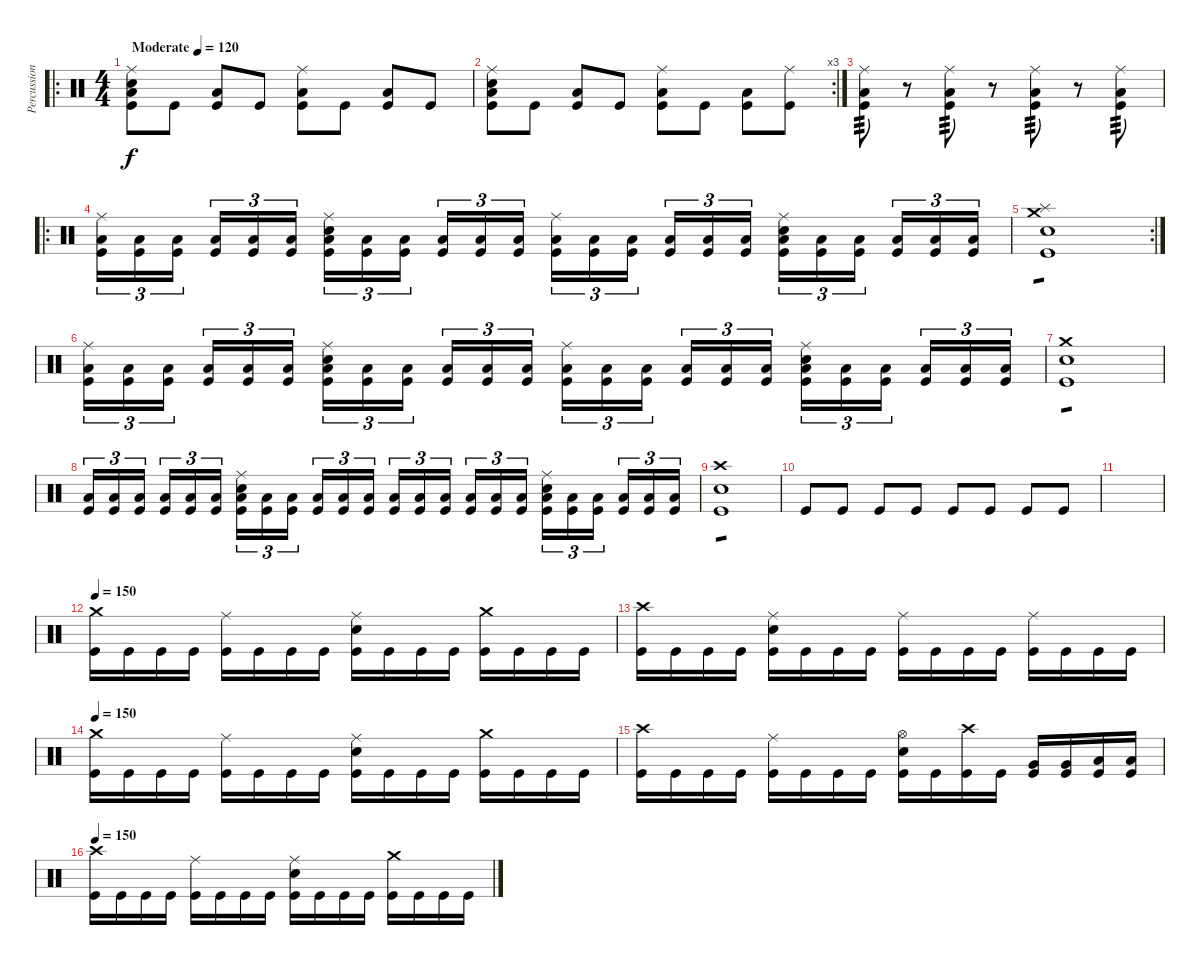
\track ("Percussion" "Percussion") {instrument percussion}
\staff {score}
\articulation defaults
\ro
\ts (4 4)
\tempo (120 "Moderate")
\clef neutral
\ks c
("Ride (middle)" "Electric Snare (hit)" "Low Floor Tom (hit)" "Kick (hit)").8{dy f} "Kick (hit)".8 ("Low Floor Tom (hit)" "Kick (hit)").8 "Kick (hit)".8 ("Ride (middle)" "Low Floor Tom (hit)" "Kick (hit)").8 "Kick (hit)".8 ("Low Floor Tom (hit)" "Kick (hit)").8 "Kick (hit)".8 |
\rc 3
("Ride (middle)" "Electric Snare (hit)" "Low Floor Tom (hit)" "Kick (hit)").8 "Kick (hit)".8 ("Low Floor Tom (hit)" "Kick (hit)").8 "Kick (hit)".8 ("Ride (middle)" "Low Floor Tom (hit)" "Kick (hit)").8 "Kick (hit)".8 ("Low Floor Tom (hit)" "Kick (hit)").8 ("Ride (middle)" "Kick (hit)").8 |
("Ride (middle)" "Low Floor Tom (hit)" "Kick (hit)").8{tp 3} r.8 ("Ride (middle)" "Low Floor Tom (hit)" "Kick (hit)").8{tp 3} r.8 ("Ride (middle)" "Low Floor Tom (hit)" "Kick (hit)").8{tp 3} r.8 ("Ride (middle)" "Low Floor Tom (hit)" "Kick (hit)").8{tp 3} |
\ro
("Ride (middle)" "Low Floor Tom (hit)" "Kick (hit)").16{tu (3 2)} ("Low Floor Tom (hit)" "Kick (hit)").16{tu (3 2)} ("Low Floor Tom (hit)" "Kick (hit)").16{tu (3 2) beam splitsecondary} ("Low Floor Tom (hit)" "Kick (hit)").16{tu (3 2)} ("Low Floor Tom (hit)" "Kick (hit)").16{tu (3 2)} ("Low Floor Tom (hit)" "Kick (hit)").16{tu (3 2)} ("Ride (middle)" "Electric Snare (hit)" "Low Floor Tom (hit)" "Kick (hit)").16{tu (3 2)} ("Low Floor Tom (hit)" "Kick (hit)").16{tu (3 2)} ("Low Floor Tom (hit)" "Kick (hit)").16{tu (3 2) beam splitsecondary} ("Low Floor Tom (hit)" "Kick (hit)").16{tu (3 2)} ("Low Floor Tom (hit)" "Kick (hit)").16{tu (3 2)} ("Low Floor Tom (hit)" "Kick (hit)").16{tu (3 2)} ("Ride (middle)" "Low Floor Tom (hit)" "Kick (hit)").16{tu (3 2)} ("Low Floor Tom (hit)" "Kick (hit)").16{tu (3 2)} ("Low Floor Tom (hit)" "Kick (hit)").16{tu (3 2) beam splitsecondary} ("Low Floor Tom (hit)" "Kick (hit)").16{tu (3 2)} ("Low Floor Tom (hit)" "Kick (hit)").16{tu (3 2)} ("Low Floor Tom (hit)" "Kick (hit)").16{tu (3 2)} ("Ride (middle)" "Electric Snare (hit)" "Low Floor Tom (hit)" "Kick (hit)").16{tu (3 2)} ("Low Floor Tom (hit)" "Kick (hit)").16{tu (3 2)} ("Low Floor Tom (hit)" "Kick (hit)").16{tu (3 2) beam splitsecondary} ("Low Floor Tom (hit)" "Kick (hit)").16{tu (3 2)} ("Low Floor Tom (hit)" "Kick (hit)").16{tu (3 2)} ("Low Floor Tom (hit)" "Kick (hit)").16{tu (3 2)} |
\rc 2
("Crash medium (hit)" "Splash (hit)" "Electric Snare (hit)" "Kick (hit)").1{tp 1} |
("Ride (middle)" "Low Floor Tom (hit)" "Kick (hit)").16{tu (3 2)} ("Low Floor Tom (hit)" "Kick (hit)").16{tu (3 2)} ("Low Floor Tom (hit)" "Kick (hit)").16{tu (3 2) beam splitsecondary} ("Low Floor Tom (hit)" "Kick (hit)").16{tu (3 2)} ("Low Floor Tom (hit)" "Kick (hit)").16{tu (3 2)} ("Low Floor Tom (hit)" "Kick (hit)").16{tu (3 2)} ("Ride (middle)" "Electric Snare (hit)" "Low Floor Tom (hit)" "Kick (hit)").16{tu (3 2)} ("Low Floor Tom (hit)" "Kick (hit)").16{tu (3 2)} ("Low Floor Tom (hit)" "Kick (hit)").16{tu (3 2) beam splitsecondary} ("Low Floor Tom (hit)" "Kick (hit)").16{tu (3 2)} ("Low Floor Tom (hit)" "Kick (hit)").16{tu (3 2)} ("Low Floor Tom (hit)" "Kick (hit)").16{tu (3 2)} ("Ride (middle)" "Low Floor Tom (hit)" "Kick (hit)").16{tu (3 2)} ("Low Floor Tom (hit)" "Kick (hit)").16{tu (3 2)} ("Low Floor Tom (hit)" "Kick (hit)").16{tu (3 2) beam splitsecondary} ("Low Floor Tom (hit)" "Kick (hit)").16{tu (3 2)} ("Low Floor Tom (hit)" "Kick (hit)").16{tu (3 2)} ("Low Floor Tom (hit)" "Kick (hit)").16{tu (3 2)} ("Ride (middle)" "Electric Snare (hit)" "Low Floor Tom (hit)" "Kick (hit)").16{tu (3 2)} ("Low Floor Tom (hit)" "Kick (hit)").16{tu (3 2)} ("Low Floor Tom (hit)" "Kick (hit)").16{tu (3 2) beam splitsecondary} ("Low Floor Tom (hit)" "Kick (hit)").16{tu (3 2)} ("Low Floor Tom (hit)" "Kick (hit)").16{tu (3 2)} ("Low Floor Tom (hit)" "Kick (hit)").16{tu (3 2)} |
("Crash medium (hit)" "Electric Snare (hit)" "Kick (hit)").1{tp 1} |
("Low Floor Tom (hit)" "Kick (hit)").16{tu (3 2)} ("Low Floor Tom (hit)" "Kick (hit)").16{tu (3 2)} ("Low Floor Tom (hit)" "Kick (hit)").16{tu (3 2) beam splitsecondary} ("Low Floor Tom (hit)" "Kick (hit)").16{tu (3 2)} ("Low Floor Tom (hit)" "Kick (hit)").16{tu (3 2)} ("Low Floor Tom (hit)" "Kick (hit)").16{tu (3 2)} ("Ride (middle)" "Electric Snare (hit)" "Low Floor Tom (hit)" "Kick (hit)").16{tu (3 2)} ("Low Floor Tom (hit)" "Kick (hit)").16{tu (3 2)} ("Low Floor Tom (hit)" "Kick (hit)").16{tu (3 2) beam splitsecondary} ("Low Floor Tom (hit)" "Kick (hit)").16{tu (3 2)} ("Low Floor Tom (hit)" "Kick (hit)").16{tu (3 2)} ("Low Floor Tom (hit)" "Kick (hit)").16{tu (3 2)} ("Low Floor Tom (hit)" "Kick (hit)").16{tu (3 2)} ("Low Floor Tom (hit)" "Kick (hit)").16{tu (3 2)} ("Low Floor Tom (hit)" "Kick (hit)").16{tu (3 2) beam splitsecondary} ("Low Floor Tom (hit)" "Kick (hit)").16{tu (3 2)} ("Low Floor Tom (hit)" "Kick (hit)").16{tu (3 2)} ("Low Floor Tom (hit)" "Kick (hit)").16{tu (3 2)} ("Ride (middle)" "Electric Snare (hit)" "Low Floor Tom (hit)" "Kick (hit)").16{tu (3 2)} ("Low Floor Tom (hit)" "Kick (hit)").16{tu (3 2)} ("Low Floor Tom (hit)" "Kick (hit)").16{tu (3 2) beam splitsecondary} ("Low Floor Tom (hit)" "Kick (hit)").16{tu (3 2)} ("Low Floor Tom (hit)" "Kick (hit)").16{tu (3 2)} ("Low Floor Tom (hit)" "Kick (hit)").16{tu (3 2)} |
("Crash high (hit)" "Electric Snare (hit)" "Kick (hit)").1{tp 1} |
"Kick (hit)".8 "Kick (hit)".8 "Kick (hit)".8 "Kick (hit)".8 "Kick (hit)".8 "Kick (hit)".8 "Kick (hit)".8 "Kick (hit)".8 |
|
\tempo 150
("Crash medium (hit)" "Kick (hit)").16 "Kick (hit)".16 "Kick (hit)".16 "Kick (hit)".16 ("Ride (middle)" "Kick (hit)").16 "Kick (hit)".16 "Kick (hit)".16 "Kick (hit)".16 ("Ride (middle)" "Electric Snare (hit)" "Kick (hit)").16 "Kick (hit)".16 "Kick (hit)".16 "Kick (hit)".16 ("Crash medium (hit)" "Kick (hit)").16 "Kick (hit)".16 "Kick (hit)".16 "Kick (hit)".16 |
("Crash high (hit)" "Kick (hit)").16 "Kick (hit)".16 "Kick (hit)".16 "Kick (hit)".16 ("Ride (middle)" "Electric Snare (hit)" "Kick (hit)").16 "Kick (hit)".16 "Kick (hit)".16 "Kick (hit)".16 ("Ride (middle)" "Kick (hit)").16 "Kick (hit)".16 "Kick (hit)".16 "Kick (hit)".16 ("Ride (middle)" "Kick (hit)").16 "Kick (hit)".16 "Kick (hit)".16 "Kick (hit)".16 |
\tempo 150
("Crash medium (hit)" "Kick (hit)").16 "Kick (hit)".16 "Kick (hit)".16 "Kick (hit)".16 ("Ride (middle)" "Kick (hit)").16 "Kick (hit)".16 "Kick (hit)".16 "Kick (hit)".16 ("Ride (middle)" "Electric Snare (hit)" "Kick (hit)").16 "Kick (hit)".16 "Kick (hit)".16 "Kick (hit)".16 ("Crash medium (hit)" "Kick (hit)").16 "Kick (hit)".16 "Kick (hit)".16 "Kick (hit)".16 |
("Crash high (hit)" "Kick (hit)").16 "Kick (hit)".16 "Kick (hit)".16 "Kick (hit)".16 ("Ride (middle)" "Kick (hit)").16 "Kick (hit)".16 "Kick (hit)".16 "Kick (hit)".16 ("Hi-Hat (open)" "Electric Snare (hit)" "Kick (hit)").16 "Kick (hit)".16 ("Crash high (hit)" "Kick (hit)").16 "Kick (hit)".16 ("Very Low Tom (hit)" "Kick (hit)").16 ("Very Low Tom (hit)" "Kick (hit)").16 ("Low Floor Tom (hit)" "Kick (hit)").16 ("Low Floor Tom (hit)" "Kick (hit)").16 |
\tempo 150
("Crash high (hit)" "Kick (hit)").16 "Kick (hit)".16 "Kick (hit)".16 "Kick (hit)".16 ("Ride (middle)" "Kick (hit)").16 "Kick (hit)".16 "Kick (hit)".16 "Kick (hit)".16 ("Ride (middle)" "Electric Snare (hit)" "Kick (hit)").16 "Kick (hit)".16 "Kick (hit)".16 "Kick (hit)".16 ("Crash medium (hit)" "Kick (hit)").16 "Kick (hit)".16 "Kick (hit)".16 "Kick (hit)".16
